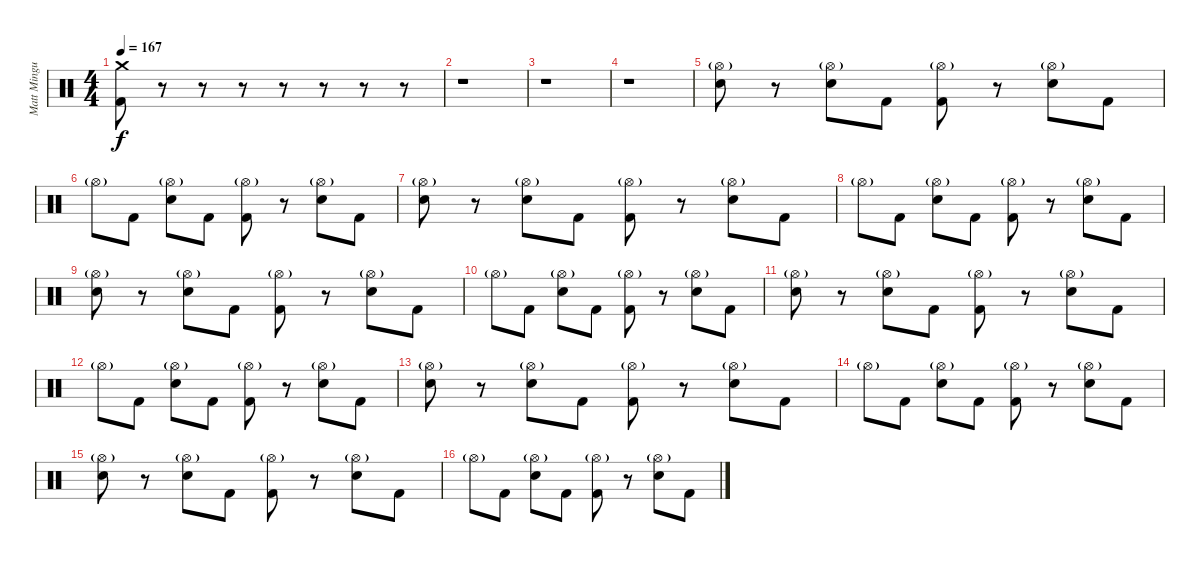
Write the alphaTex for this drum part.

\track ("Matt Mingus" "Matt Mingu") {instrument percussion}
\staff {score}
\articulation defaults
\ts (4 4)
\tempo 167
\clef neutral
\ks c
("Kick (hit) 2" "Crash medium (hit)").8{dy f} r.8 r.8 r.8 r.8 r.8 r.8 r.8 |
r.1 |
r.1 |
r.1 |
("Electric Snare (hit)" "Hi-Hat (open)"{g}).8 r.8 ("Electric Snare (hit)" "Hi-Hat (open)"{g}).8 "Kick (hit) 2".8 ("Kick (hit) 2" "Hi-Hat (open)"{g}).8 r.8 ("Electric Snare (hit)" "Hi-Hat (open)"{g}).8 "Kick (hit) 2".8 |
"Hi-Hat (open)"{g}.8 "Kick (hit) 2".8 ("Electric Snare (hit)" "Hi-Hat (open)"{g}).8 "Kick (hit) 2".8 ("Kick (hit) 2" "Hi-Hat (open)"{g}).8 r.8 ("Electric Snare (hit)" "Hi-Hat (open)"{g}).8 "Kick (hit) 2".8 |
("Electric Snare (hit)" "Hi-Hat (open)"{g}).8 r.8 ("Electric Snare (hit)" "Hi-Hat (open)"{g}).8 "Kick (hit) 2".8 ("Kick (hit) 2" "Hi-Hat (open)"{g}).8 r.8 ("Electric Snare (hit)" "Hi-Hat (open)"{g}).8 "Kick (hit) 2".8 |
"Hi-Hat (open)"{g}.8 "Kick (hit) 2".8 ("Electric Snare (hit)" "Hi-Hat (open)"{g}).8 "Kick (hit) 2".8 ("Kick (hit) 2" "Hi-Hat (open)"{g}).8 r.8 ("Electric Snare (hit)" "Hi-Hat (open)"{g}).8 "Kick (hit) 2".8 |
("Electric Snare (hit)" "Hi-Hat (open)"{g}).8 r.8 ("Electric Snare (hit)" "Hi-Hat (open)"{g}).8 "Kick (hit) 2".8 ("Kick (hit) 2" "Hi-Hat (open)"{g}).8 r.8 ("Electric Snare (hit)" "Hi-Hat (open)"{g}).8 "Kick (hit) 2".8 |
"Hi-Hat (open)"{g}.8 "Kick (hit) 2".8 ("Electric Snare (hit)" "Hi-Hat (open)"{g}).8 "Kick (hit) 2".8 ("Kick (hit) 2" "Hi-Hat (open)"{g}).8 r.8 ("Electric Snare (hit)" "Hi-Hat (open)"{g}).8 "Kick (hit) 2".8 |
("Electric Snare (hit)" "Hi-Hat (open)"{g}).8 r.8 ("Electric Snare (hit)" "Hi-Hat (open)"{g}).8 "Kick (hit) 2".8 ("Kick (hit) 2" "Hi-Hat (open)"{g}).8 r.8 ("Electric Snare (hit)" "Hi-Hat (open)"{g}).8 "Kick (hit) 2".8 |
"Hi-Hat (open)"{g}.8 "Kick (hit) 2".8 ("Electric Snare (hit)" "Hi-Hat (open)"{g}).8 "Kick (hit) 2".8 ("Kick (hit) 2" "Hi-Hat (open)"{g}).8 r.8 ("Electric Snare (hit)" "Hi-Hat (open)"{g}).8 "Kick (hit) 2".8 |
("Electric Snare (hit)" "Hi-Hat (open)"{g}).8 r.8 ("Electric Snare (hit)" "Hi-Hat (open)"{g}).8 "Kick (hit) 2".8 ("Kick (hit) 2" "Hi-Hat (open)"{g}).8 r.8 ("Electric Snare (hit)" "Hi-Hat (open)"{g}).8 "Kick (hit) 2".8 |
"Hi-Hat (open)"{g}.8 "Kick (hit) 2".8 ("Electric Snare (hit)" "Hi-Hat (open)"{g}).8 "Kick (hit) 2".8 ("Kick (hit) 2" "Hi-Hat (open)"{g}).8 r.8 ("Electric Snare (hit)" "Hi-Hat (open)"{g}).8 "Kick (hit) 2".8 |
("Electric Snare (hit)" "Hi-Hat (open)"{g}).8 r.8 ("Electric Snare (hit)" "Hi-Hat (open)"{g}).8 "Kick (hit) 2".8 ("Kick (hit) 2" "Hi-Hat (open)"{g}).8 r.8 ("Electric Snare (hit)" "Hi-Hat (open)"{g}).8 "Kick (hit) 2".8 |
"Hi-Hat (open)"{g}.8 "Kick (hit) 2".8 ("Electric Snare (hit)" "Hi-Hat (open)"{g}).8 "Kick (hit) 2".8 ("Kick (hit) 2" "Hi-Hat (open)"{g}).8 r.8 ("Electric Snare (hit)" "Hi-Hat (open)"{g}).8 "Kick (hit) 2".8
